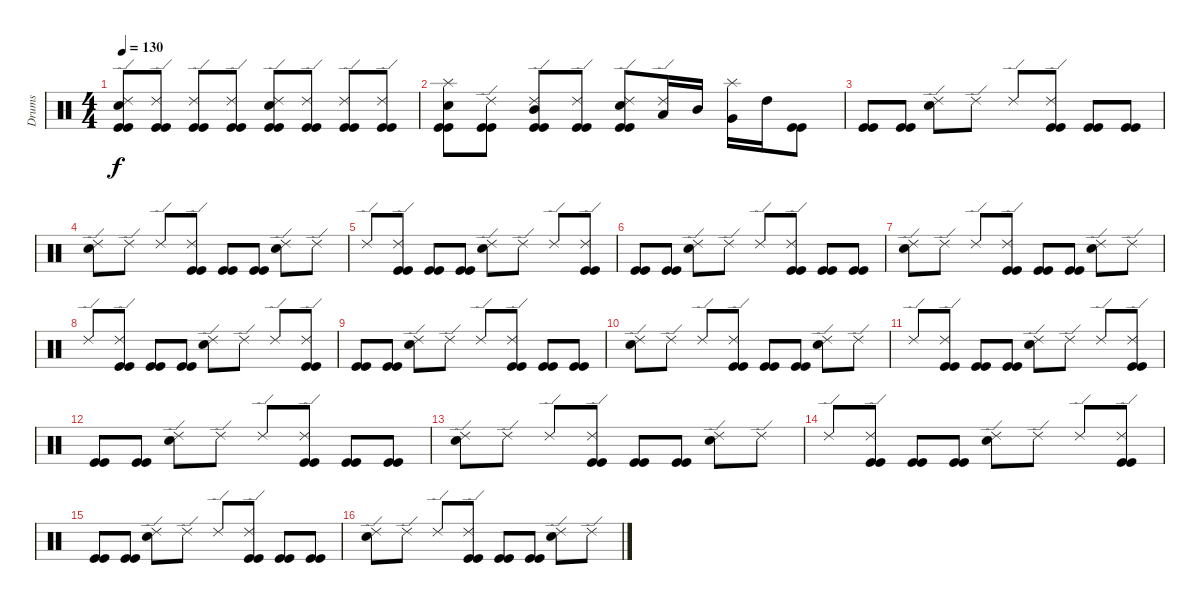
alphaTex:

\track ("Drums" "Drums") {instrument percussion}
\staff {score}
\articulation defaults
\ts (4 4)
\tempo 130
\clef neutral
\ks c
("Ride (edge) 2" "Snare (hit) 2" "Kick (hit)" "Kick (hit)").8{dy f} ("Ride (edge) 2" "Kick (hit)" "Kick (hit)").8 ("Ride (edge) 2" "Kick (hit)" "Kick (hit)").8 ("Ride (edge) 2" "Kick (hit)" "Kick (hit)").8 ("Ride (edge) 2" "Snare (hit) 2" "Kick (hit)" "Kick (hit)").8 ("Ride (edge) 2" "Kick (hit)" "Kick (hit)").8 ("Ride (edge) 2" "Kick (hit)" "Kick (hit)").8 ("Ride (edge) 2" "Kick (hit)" "Kick (hit)").8 |
("Splash (hit)" "Snare (hit) 2" "Kick (hit)" "Kick (hit)").8 ("Ride (edge) 2" "Kick (hit)" "Kick (hit)").8 ("Ride (edge) 2" "Mid Tom (hit)" "Kick (hit)" "Kick (hit)").8 ("Ride (edge) 2" "Kick (hit)" "Kick (hit)").8 ("Ride (edge) 2" "Snare (hit) 2" "Kick (hit)" "Kick (hit)").8 ("Ride (edge) 2" "Low Tom (hit)").16 "Mid Tom (hit)".16 ("Splash (hit)" "Very Low Tom (hit)").16 "High Tom (hit)".16 ("Kick (hit)" "Kick (hit)").8 |
("Kick (hit)" "Kick (hit)").8 ("Kick (hit)" "Kick (hit)").8 ("Ride (edge) 2" "Snare (hit) 2").8 "Ride (edge) 2".8 "Ride (edge) 2".8 ("Ride (edge) 2" "Kick (hit)" "Kick (hit)").8 ("Kick (hit)" "Kick (hit)").8 ("Kick (hit)" "Kick (hit)").8 |
("Ride (edge) 2" "Snare (hit) 2").8 "Ride (edge) 2".8 "Ride (edge) 2".8 ("Ride (edge) 2" "Kick (hit)" "Kick (hit)").8 ("Kick (hit)" "Kick (hit)").8 ("Kick (hit)" "Kick (hit)").8 ("Ride (edge) 2" "Snare (hit) 2").8 "Ride (edge) 2".8 |
"Ride (edge) 2".8 ("Ride (edge) 2" "Kick (hit)" "Kick (hit)").8 ("Kick (hit)" "Kick (hit)").8 ("Kick (hit)" "Kick (hit)").8 ("Ride (edge) 2" "Snare (hit) 2").8 "Ride (edge) 2".8 "Ride (edge) 2".8 ("Ride (edge) 2" "Kick (hit)" "Kick (hit)").8 |
("Kick (hit)" "Kick (hit)").8 ("Kick (hit)" "Kick (hit)").8 ("Ride (edge) 2" "Snare (hit) 2").8 "Ride (edge) 2".8 "Ride (edge) 2".8 ("Ride (edge) 2" "Kick (hit)" "Kick (hit)").8 ("Kick (hit)" "Kick (hit)").8 ("Kick (hit)" "Kick (hit)").8 |
("Ride (edge) 2" "Snare (hit) 2").8 "Ride (edge) 2".8 "Ride (edge) 2".8 ("Ride (edge) 2" "Kick (hit)" "Kick (hit)").8 ("Kick (hit)" "Kick (hit)").8 ("Kick (hit)" "Kick (hit)").8 ("Ride (edge) 2" "Snare (hit) 2").8 "Ride (edge) 2".8 |
"Ride (edge) 2".8 ("Ride (edge) 2" "Kick (hit)" "Kick (hit)").8 ("Kick (hit)" "Kick (hit)").8 ("Kick (hit)" "Kick (hit)").8 ("Ride (edge) 2" "Snare (hit) 2").8 "Ride (edge) 2".8 "Ride (edge) 2".8 ("Ride (edge) 2" "Kick (hit)" "Kick (hit)").8 |
("Kick (hit)" "Kick (hit)").8 ("Kick (hit)" "Kick (hit)").8 ("Ride (edge) 2" "Snare (hit) 2").8 "Ride (edge) 2".8 "Ride (edge) 2".8 ("Ride (edge) 2" "Kick (hit)" "Kick (hit)").8 ("Kick (hit)" "Kick (hit)").8 ("Kick (hit)" "Kick (hit)").8 |
("Ride (edge) 2" "Snare (hit) 2").8 "Ride (edge) 2".8 "Ride (edge) 2".8 ("Ride (edge) 2" "Kick (hit)" "Kick (hit)").8 ("Kick (hit)" "Kick (hit)").8 ("Kick (hit)" "Kick (hit)").8 ("Ride (edge) 2" "Snare (hit) 2").8 "Ride (edge) 2".8 |
"Ride (edge) 2".8 ("Ride (edge) 2" "Kick (hit)" "Kick (hit)").8 ("Kick (hit)" "Kick (hit)").8 ("Kick (hit)" "Kick (hit)").8 ("Ride (edge) 2" "Snare (hit) 2").8 "Ride (edge) 2".8 "Ride (edge) 2".8 ("Ride (edge) 2" "Kick (hit)" "Kick (hit)").8 |
("Kick (hit)" "Kick (hit)").8 ("Kick (hit)" "Kick (hit)").8 ("Ride (edge) 2" "Snare (hit) 2").8 "Ride (edge) 2".8 "Ride (edge) 2".8 ("Ride (edge) 2" "Kick (hit)" "Kick (hit)").8 ("Kick (hit)" "Kick (hit)").8 ("Kick (hit)" "Kick (hit)").8 |
("Ride (edge) 2" "Snare (hit) 2").8 "Ride (edge) 2".8 "Ride (edge) 2".8 ("Ride (edge) 2" "Kick (hit)" "Kick (hit)").8 ("Kick (hit)" "Kick (hit)").8 ("Kick (hit)" "Kick (hit)").8 ("Ride (edge) 2" "Snare (hit) 2").8 "Ride (edge) 2".8 |
"Ride (edge) 2".8 ("Ride (edge) 2" "Kick (hit)" "Kick (hit)").8 ("Kick (hit)" "Kick (hit)").8 ("Kick (hit)" "Kick (hit)").8 ("Ride (edge) 2" "Snare (hit) 2").8 "Ride (edge) 2".8 "Ride (edge) 2".8 ("Ride (edge) 2" "Kick (hit)" "Kick (hit)").8 |
("Kick (hit)" "Kick (hit)").8 ("Kick (hit)" "Kick (hit)").8 ("Ride (edge) 2" "Snare (hit) 2").8 "Ride (edge) 2".8 "Ride (edge) 2".8 ("Ride (edge) 2" "Kick (hit)" "Kick (hit)").8 ("Kick (hit)" "Kick (hit)").8 ("Kick (hit)" "Kick (hit)").8 |
("Ride (edge) 2" "Snare (hit) 2").8 "Ride (edge) 2".8 "Ride (edge) 2".8 ("Ride (edge) 2" "Kick (hit)" "Kick (hit)").8 ("Kick (hit)" "Kick (hit)").8 ("Kick (hit)" "Kick (hit)").8 ("Ride (edge) 2" "Snare (hit) 2").8 "Ride (edge) 2".8
